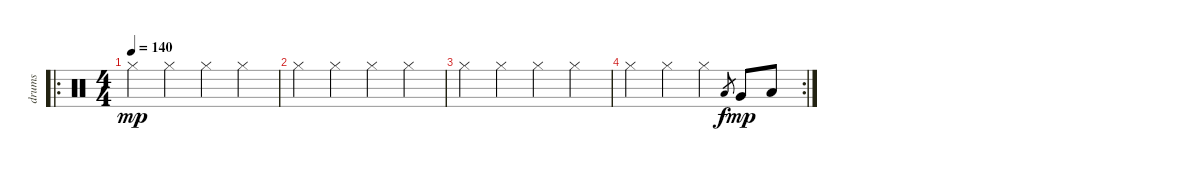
\track ("drums" "drums") {instrument percussion}
\staff {score}
\articulation defaults
\ro
\ts (4 4)
\tempo 140
\clef neutral
\ks c "Hi-Hat (closed)".4{dy mp} "Hi-Hat (closed)".4 "Hi-Hat (closed)".4 "Hi-Hat (closed)".4
|
"Hi-Hat (closed)".4 "Hi-Hat (closed)".4 "Hi-Hat (closed)".4 "Hi-Hat (closed)".4 |
"Hi-Hat (closed)".4 "Hi-Hat (closed)".4 "Hi-Hat (closed)".4 "Hi-Hat (closed)".4 |
\rc 2 "Hi-Hat (closed)".4 "Hi-Hat (closed)".4 "Hi-Hat (closed)".4 "Low Floor Tom (hit)".8{gr dy f} "Very Low Tom (hit)".8{dy mp} "Low Tom (hit)".8
